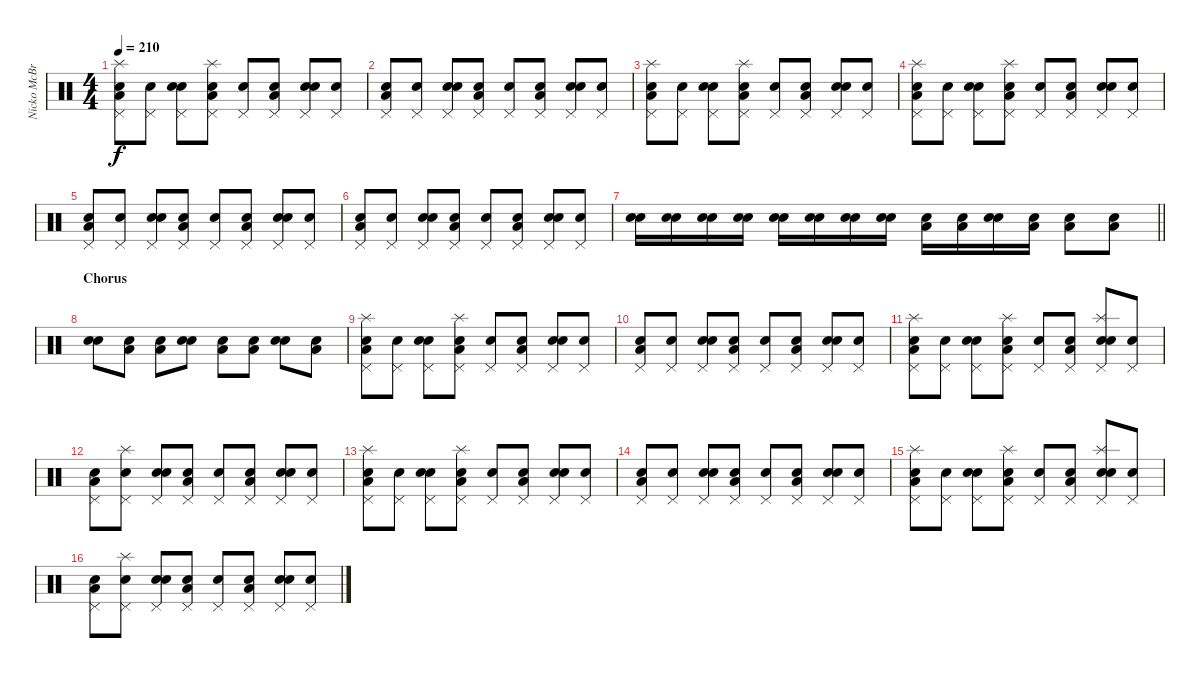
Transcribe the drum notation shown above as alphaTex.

\track ("Nicko McBrain" "Nicko McBr") {instrument percussion}
\staff {score}
\articulation defaults
\ts (4 4)
\tempo 210
\clef neutral
\ks c
("Snare (hit)" "Low Floor Tom (hit)" "Pedal Hi-Hat (hit)" "Splash (hit)").8{dy f} ("Snare (hit)" "Pedal Hi-Hat (hit)").8 ("Snare (hit)" "Electric Snare (hit)" "Pedal Hi-Hat (hit)").8 ("Snare (hit)" "Low Floor Tom (hit)" "Pedal Hi-Hat (hit)" "Splash (hit)").8 ("Snare (hit)" "Pedal Hi-Hat (hit)").8 ("Snare (hit)" "Low Floor Tom (hit)" "Pedal Hi-Hat (hit)").8 ("Snare (hit)" "Electric Snare (hit)" "Pedal Hi-Hat (hit)").8 ("Snare (hit)" "Pedal Hi-Hat (hit)").8 |
("Snare (hit)" "Low Floor Tom (hit)" "Pedal Hi-Hat (hit)").8 ("Snare (hit)" "Pedal Hi-Hat (hit)").8 ("Snare (hit)" "Electric Snare (hit)" "Pedal Hi-Hat (hit)").8 ("Snare (hit)" "Low Floor Tom (hit)" "Pedal Hi-Hat (hit)").8 ("Snare (hit)" "Pedal Hi-Hat (hit)").8 ("Snare (hit)" "Low Floor Tom (hit)" "Pedal Hi-Hat (hit)").8 ("Snare (hit)" "Electric Snare (hit)" "Pedal Hi-Hat (hit)").8 ("Snare (hit)" "Pedal Hi-Hat (hit)").8 |
("Snare (hit)" "Low Floor Tom (hit)" "Pedal Hi-Hat (hit)" "Splash (hit)").8 ("Snare (hit)" "Pedal Hi-Hat (hit)").8 ("Snare (hit)" "Electric Snare (hit)" "Pedal Hi-Hat (hit)").8 ("Snare (hit)" "Low Floor Tom (hit)" "Pedal Hi-Hat (hit)" "Splash (hit)").8 ("Snare (hit)" "Pedal Hi-Hat (hit)").8 ("Snare (hit)" "Low Floor Tom (hit)" "Pedal Hi-Hat (hit)").8 ("Snare (hit)" "Electric Snare (hit)" "Pedal Hi-Hat (hit)").8 ("Snare (hit)" "Pedal Hi-Hat (hit)").8 |
("Snare (hit)" "Low Floor Tom (hit)" "Pedal Hi-Hat (hit)" "Splash (hit)").8 ("Snare (hit)" "Pedal Hi-Hat (hit)").8 ("Snare (hit)" "Electric Snare (hit)" "Pedal Hi-Hat (hit)").8 ("Snare (hit)" "Low Floor Tom (hit)" "Pedal Hi-Hat (hit)" "Splash (hit)").8 ("Snare (hit)" "Pedal Hi-Hat (hit)").8 ("Snare (hit)" "Low Floor Tom (hit)" "Pedal Hi-Hat (hit)").8 ("Snare (hit)" "Electric Snare (hit)" "Pedal Hi-Hat (hit)").8 ("Snare (hit)" "Pedal Hi-Hat (hit)").8 |
("Snare (hit)" "Low Floor Tom (hit)" "Pedal Hi-Hat (hit)").8 ("Snare (hit)" "Pedal Hi-Hat (hit)").8 ("Snare (hit)" "Electric Snare (hit)" "Pedal Hi-Hat (hit)").8 ("Snare (hit)" "Low Floor Tom (hit)" "Pedal Hi-Hat (hit)").8 ("Snare (hit)" "Pedal Hi-Hat (hit)").8 ("Snare (hit)" "Low Floor Tom (hit)" "Pedal Hi-Hat (hit)").8 ("Snare (hit)" "Electric Snare (hit)" "Pedal Hi-Hat (hit)").8 ("Snare (hit)" "Pedal Hi-Hat (hit)").8 |
("Snare (hit)" "Low Floor Tom (hit)" "Pedal Hi-Hat (hit)").8 ("Snare (hit)" "Pedal Hi-Hat (hit)").8 ("Snare (hit)" "Electric Snare (hit)" "Pedal Hi-Hat (hit)").8 ("Snare (hit)" "Low Floor Tom (hit)" "Pedal Hi-Hat (hit)").8 ("Snare (hit)" "Pedal Hi-Hat (hit)").8 ("Snare (hit)" "Low Floor Tom (hit)" "Pedal Hi-Hat (hit)").8 ("Snare (hit)" "Electric Snare (hit)" "Pedal Hi-Hat (hit)").8 ("Snare (hit)" "Pedal Hi-Hat (hit)").8 |
\barLineRight lightlight
("Snare (hit)" "Electric Snare (hit)").16 ("Snare (hit)" "Electric Snare (hit)").16 ("Snare (hit)" "Electric Snare (hit)").16 ("Snare (hit)" "Electric Snare (hit)").16 ("Snare (hit)" "Electric Snare (hit)").16 ("Snare (hit)" "Electric Snare (hit)").16 ("Snare (hit)" "Electric Snare (hit)").16 ("Snare (hit)" "Electric Snare (hit)").16 ("Snare (hit)" "Low Floor Tom (hit)").16 ("Snare (hit)" "Low Floor Tom (hit)").16 ("Snare (hit)" "Electric Snare (hit)").16 ("Snare (hit)" "Low Floor Tom (hit)").16 ("Snare (hit)" "Low Floor Tom (hit)").8 ("Snare (hit)" "Low Floor Tom (hit)").8 |
\section ("" "Chorus")
("Snare (hit)" "Electric Snare (hit)").8 ("Snare (hit)" "Low Floor Tom (hit)").8 ("Snare (hit)" "Low Floor Tom (hit)").8 ("Snare (hit)" "Electric Snare (hit)").8 ("Snare (hit)" "Low Floor Tom (hit)").8 ("Snare (hit)" "Low Floor Tom (hit)").8 ("Snare (hit)" "Electric Snare (hit)").8 ("Snare (hit)" "Low Floor Tom (hit)").8 |
("Snare (hit)" "Low Floor Tom (hit)" "Pedal Hi-Hat (hit)" "Splash (hit)").8 ("Snare (hit)" "Pedal Hi-Hat (hit)").8 ("Snare (hit)" "Electric Snare (hit)" "Pedal Hi-Hat (hit)").8 ("Snare (hit)" "Low Floor Tom (hit)" "Pedal Hi-Hat (hit)" "Splash (hit)").8 ("Snare (hit)" "Pedal Hi-Hat (hit)").8 ("Snare (hit)" "Low Floor Tom (hit)" "Pedal Hi-Hat (hit)").8 ("Snare (hit)" "Electric Snare (hit)" "Pedal Hi-Hat (hit)").8 ("Snare (hit)" "Pedal Hi-Hat (hit)").8 |
("Snare (hit)" "Low Floor Tom (hit)" "Pedal Hi-Hat (hit)").8 ("Snare (hit)" "Pedal Hi-Hat (hit)").8 ("Snare (hit)" "Electric Snare (hit)" "Pedal Hi-Hat (hit)").8 ("Snare (hit)" "Low Floor Tom (hit)" "Pedal Hi-Hat (hit)").8 ("Snare (hit)" "Pedal Hi-Hat (hit)").8 ("Snare (hit)" "Low Floor Tom (hit)" "Pedal Hi-Hat (hit)").8 ("Snare (hit)" "Electric Snare (hit)" "Pedal Hi-Hat (hit)").8 ("Snare (hit)" "Pedal Hi-Hat (hit)").8 |
("Snare (hit)" "Low Floor Tom (hit)" "Pedal Hi-Hat (hit)" "Splash (hit)").8 ("Snare (hit)" "Pedal Hi-Hat (hit)").8 ("Snare (hit)" "Electric Snare (hit)" "Pedal Hi-Hat (hit)").8 ("Snare (hit)" "Low Floor Tom (hit)" "Pedal Hi-Hat (hit)" "Splash (hit)").8 ("Snare (hit)" "Pedal Hi-Hat (hit)").8 ("Snare (hit)" "Low Floor Tom (hit)" "Pedal Hi-Hat (hit)").8 ("Snare (hit)" "Electric Snare (hit)" "Pedal Hi-Hat (hit)" "Splash (hit)").8 ("Snare (hit)" "Pedal Hi-Hat (hit)").8 |
("Snare (hit)" "Low Floor Tom (hit)" "Pedal Hi-Hat (hit)").8 ("Snare (hit)" "Pedal Hi-Hat (hit)" "Splash (hit)").8 ("Snare (hit)" "Electric Snare (hit)" "Pedal Hi-Hat (hit)").8 ("Snare (hit)" "Low Floor Tom (hit)" "Pedal Hi-Hat (hit)").8 ("Snare (hit)" "Pedal Hi-Hat (hit)").8 ("Snare (hit)" "Low Floor Tom (hit)" "Pedal Hi-Hat (hit)").8 ("Snare (hit)" "Electric Snare (hit)" "Pedal Hi-Hat (hit)").8 ("Snare (hit)" "Pedal Hi-Hat (hit)").8 |
("Snare (hit)" "Low Floor Tom (hit)" "Pedal Hi-Hat (hit)" "Splash (hit)").8 ("Snare (hit)" "Pedal Hi-Hat (hit)").8 ("Snare (hit)" "Electric Snare (hit)" "Pedal Hi-Hat (hit)").8 ("Snare (hit)" "Low Floor Tom (hit)" "Pedal Hi-Hat (hit)" "Splash (hit)").8 ("Snare (hit)" "Pedal Hi-Hat (hit)").8 ("Snare (hit)" "Low Floor Tom (hit)" "Pedal Hi-Hat (hit)").8 ("Snare (hit)" "Electric Snare (hit)" "Pedal Hi-Hat (hit)").8 ("Snare (hit)" "Pedal Hi-Hat (hit)").8 |
("Snare (hit)" "Low Floor Tom (hit)" "Pedal Hi-Hat (hit)").8 ("Snare (hit)" "Pedal Hi-Hat (hit)").8 ("Snare (hit)" "Electric Snare (hit)" "Pedal Hi-Hat (hit)").8 ("Snare (hit)" "Low Floor Tom (hit)" "Pedal Hi-Hat (hit)").8 ("Snare (hit)" "Pedal Hi-Hat (hit)").8 ("Snare (hit)" "Low Floor Tom (hit)" "Pedal Hi-Hat (hit)").8 ("Snare (hit)" "Electric Snare (hit)" "Pedal Hi-Hat (hit)").8 ("Snare (hit)" "Pedal Hi-Hat (hit)").8 |
("Snare (hit)" "Low Floor Tom (hit)" "Pedal Hi-Hat (hit)" "Splash (hit)").8 ("Snare (hit)" "Pedal Hi-Hat (hit)").8 ("Snare (hit)" "Electric Snare (hit)" "Pedal Hi-Hat (hit)").8 ("Snare (hit)" "Low Floor Tom (hit)" "Pedal Hi-Hat (hit)" "Splash (hit)").8 ("Snare (hit)" "Pedal Hi-Hat (hit)").8 ("Snare (hit)" "Low Floor Tom (hit)" "Pedal Hi-Hat (hit)").8 ("Snare (hit)" "Electric Snare (hit)" "Pedal Hi-Hat (hit)" "Splash (hit)").8 ("Snare (hit)" "Pedal Hi-Hat (hit)").8 |
("Snare (hit)" "Low Floor Tom (hit)" "Pedal Hi-Hat (hit)").8 ("Snare (hit)" "Pedal Hi-Hat (hit)" "Splash (hit)").8 ("Snare (hit)" "Electric Snare (hit)" "Pedal Hi-Hat (hit)").8 ("Snare (hit)" "Low Floor Tom (hit)" "Pedal Hi-Hat (hit)").8 ("Snare (hit)" "Pedal Hi-Hat (hit)").8 ("Snare (hit)" "Low Floor Tom (hit)" "Pedal Hi-Hat (hit)").8 ("Snare (hit)" "Electric Snare (hit)" "Pedal Hi-Hat (hit)").8 ("Snare (hit)" "Pedal Hi-Hat (hit)").8
